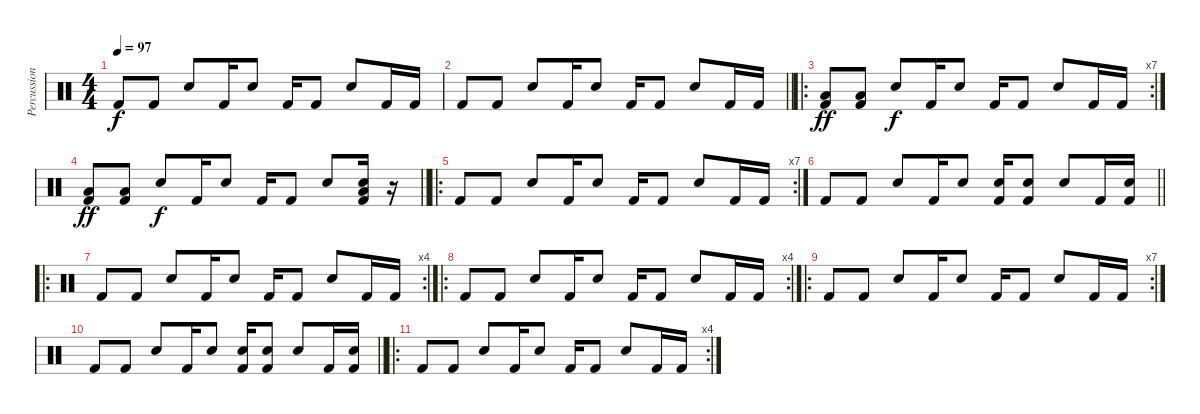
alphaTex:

\track ("Percussion" "Percussion") {instrument percussion}
\staff {score}
\articulation defaults
\ts (4 4)
\tempo 97
\clef neutral
\ks c "Kick (hit) 2".8{dy f} "Kick (hit) 2".8 "Snare (hit) 2".8 "Kick (hit) 2".16 "Snare (hit) 2".8 "Kick (hit) 2".16 "Kick (hit) 2".8 "Snare (hit) 2".8 "Kick (hit) 2".16 "Kick (hit) 2".16
|
\barLineRight lightlight "Kick (hit) 2".8 "Kick (hit) 2".8 "Snare (hit) 2".8 "Kick (hit) 2".16 "Snare (hit) 2".8 "Kick (hit) 2".16 "Kick (hit) 2".8 "Snare (hit) 2".8 "Kick (hit) 2".16 "Kick (hit) 2".16
|
\ro
\rc 7
("Low Tom (hit)" "Kick (hit) 2").8{dy ff} ("Low Tom (hit)" "Kick (hit) 2").8 "Snare (hit) 2".8{dy f} "Kick (hit) 2".16 "Snare (hit) 2".8 "Kick (hit) 2".16 "Kick (hit) 2".8 "Snare (hit) 2".8 "Kick (hit) 2".16 "Kick (hit) 2".16 |
\barLineRight lightlight
("Low Tom (hit)" "Kick (hit) 2").8{dy ff} ("Low Tom (hit)" "Kick (hit) 2").8 "Snare (hit) 2".8{dy f} "Kick (hit) 2".16 "Snare (hit) 2".8 "Kick (hit) 2".16 "Kick (hit) 2".8 "Snare (hit) 2".8 ("Snare (hit) 2" "Low Tom (hit)" "Kick (hit) 2").16 r.16 |
\ro
\rc 7 "Kick (hit) 2".8 "Kick (hit) 2".8 "Snare (hit) 2".8 "Kick (hit) 2".16 "Snare (hit) 2".8 "Kick (hit) 2".16 "Kick (hit) 2".8 "Snare (hit) 2".8 "Kick (hit) 2".16 "Kick (hit) 2".16
|
\barLineRight lightlight "Kick (hit) 2".8 "Kick (hit) 2".8 "Snare (hit) 2".8 "Kick (hit) 2".16 "Snare (hit) 2".8
("Snare (hit) 2" "Kick (hit) 2").16 ("Snare (hit) 2" "Kick (hit) 2").8 "Snare (hit) 2".8 "Kick (hit) 2".16 ("Snare (hit) 2" "Kick (hit) 2").16 |
\ro
\rc 4 "Kick (hit) 2".8 "Kick (hit) 2".8 "Snare (hit) 2".8 "Kick (hit) 2".16 "Snare (hit) 2".8 "Kick (hit) 2".16 "Kick (hit) 2".8 "Snare (hit) 2".8 "Kick (hit) 2".16 "Kick (hit) 2".16
|
\ro
\rc 4 "Kick (hit) 2".8 "Kick (hit) 2".8 "Snare (hit) 2".8 "Kick (hit) 2".16 "Snare (hit) 2".8 "Kick (hit) 2".16 "Kick (hit) 2".8 "Snare (hit) 2".8 "Kick (hit) 2".16 "Kick (hit) 2".16
|
\ro
\rc 7 "Kick (hit) 2".8 "Kick (hit) 2".8 "Snare (hit) 2".8 "Kick (hit) 2".16 "Snare (hit) 2".8 "Kick (hit) 2".16 "Kick (hit) 2".8 "Snare (hit) 2".8 "Kick (hit) 2".16 "Kick (hit) 2".16
|
\barLineRight lightlight "Kick (hit) 2".8 "Kick (hit) 2".8 "Snare (hit) 2".8 "Kick (hit) 2".16 "Snare (hit) 2".8
("Snare (hit) 2" "Kick (hit) 2").16 ("Snare (hit) 2" "Kick (hit) 2").8 "Snare (hit) 2".8 "Kick (hit) 2".16 ("Snare (hit) 2" "Kick (hit) 2").16 |
\ro
\rc 4 "Kick (hit) 2".8 "Kick (hit) 2".8 "Snare (hit) 2".8 "Kick (hit) 2".16 "Snare (hit) 2".8 "Kick (hit) 2".16 "Kick (hit) 2".8 "Snare (hit) 2".8 "Kick (hit) 2".16 "Kick (hit) 2".16
